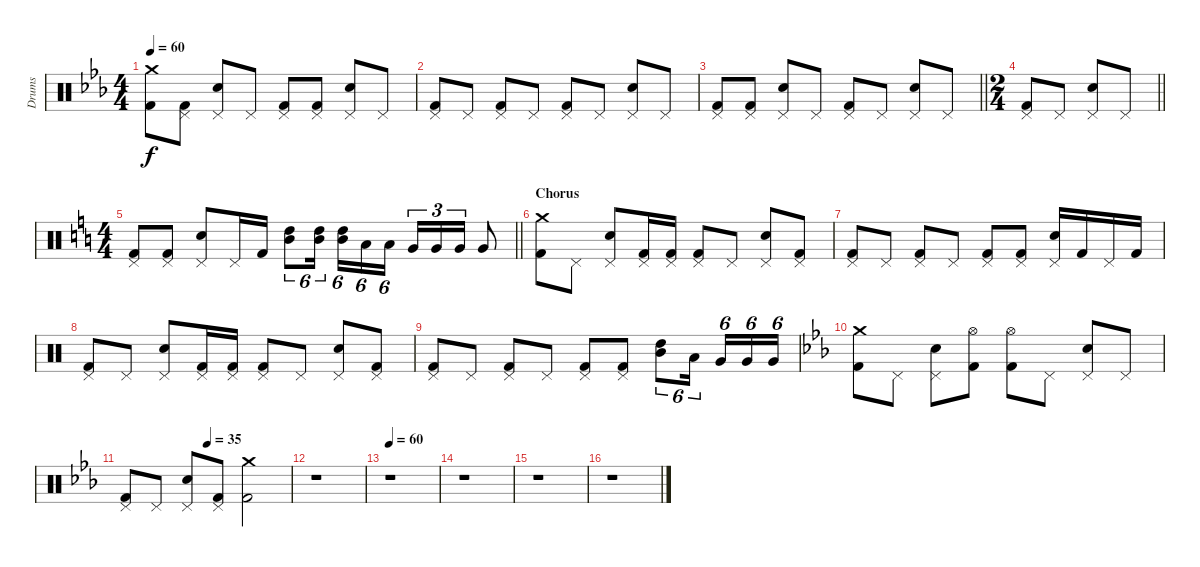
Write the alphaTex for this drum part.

\track ("Drums" "Drums") {instrument percussion}
\staff {score}
\articulation defaults
\ts (4 4)
\tempo 60
\clef neutral
\ks cminor
("Crash medium (hit)" "Kick (hit) 2").8{dy f} ("Pedal Hi-Hat (hit)" "Kick (hit) 2").8 ("Pedal Hi-Hat (hit)" "Snare (hit) 2").8 "Pedal Hi-Hat (hit)".8 ("Pedal Hi-Hat (hit)" "Kick (hit) 2").8 ("Pedal Hi-Hat (hit)" "Kick (hit) 2").8 ("Pedal Hi-Hat (hit)" "Snare (hit) 2").8 "Pedal Hi-Hat (hit)".8 |
("Pedal Hi-Hat (hit)" "Kick (hit) 2").8 "Pedal Hi-Hat (hit)".8 ("Pedal Hi-Hat (hit)" "Kick (hit) 2").8 "Pedal Hi-Hat (hit)".8 ("Pedal Hi-Hat (hit)" "Kick (hit) 2").8 "Pedal Hi-Hat (hit)".8 ("Pedal Hi-Hat (hit)" "Snare (hit) 2").8 "Pedal Hi-Hat (hit)".8 |
\barLineRight lightlight
("Pedal Hi-Hat (hit)" "Kick (hit) 2").8 ("Pedal Hi-Hat (hit)" "Kick (hit) 2").8 ("Pedal Hi-Hat (hit)" "Snare (hit) 2").8 "Pedal Hi-Hat (hit)".8 ("Pedal Hi-Hat (hit)" "Kick (hit) 2").8 "Pedal Hi-Hat (hit)".8 ("Pedal Hi-Hat (hit)" "Snare (hit) 2").8 "Pedal Hi-Hat (hit)".8 |
\ts (2 4)
\barLineRight lightlight
("Pedal Hi-Hat (hit)" "Kick (hit) 2").8 "Pedal Hi-Hat (hit)".8 ("Pedal Hi-Hat (hit)" "Snare (hit) 2").8 "Pedal Hi-Hat (hit)".8 |
\ts (4 4)
\barLineRight lightlight
\ks c
("Pedal Hi-Hat (hit)" "Kick (hit) 2").8 ("Pedal Hi-Hat (hit)" "Kick (hit) 2").8 ("Pedal Hi-Hat (hit)" "Snare (hit) 2").8 "Pedal Hi-Hat (hit)".16 "Kick (hit) 2".16 ("High Tom (hit)" "Mid Tom (hit)").8{tu (6 4)} ("High Tom (hit)" "Mid Tom (hit)").16{tu (6 4) beam splitsecondary} ("High Tom (hit)" "Mid Tom (hit)").16{tu (6 4)} "Low Tom (hit)".16{tu (6 4)} "Low Tom (hit)".16{tu (6 4)} "Very Low Tom (hit)".16{tu (3 2)} "Very Low Tom (hit)".16{tu (3 2)} "Very Low Tom (hit)".16{tu (3 2)} "Very Low Tom (hit)".8 |
\section ("" "Chorus")
("Crash medium (hit)" "Kick (hit) 2").8 "Pedal Hi-Hat (hit)".8 ("Pedal Hi-Hat (hit)" "Snare (hit) 2").8 ("Pedal Hi-Hat (hit)" "Kick (hit) 2").16 ("Pedal Hi-Hat (hit)" "Kick (hit) 2").16 ("Pedal Hi-Hat (hit)" "Kick (hit) 2").8 "Pedal Hi-Hat (hit)".8 ("Pedal Hi-Hat (hit)" "Snare (hit) 2").8 ("Pedal Hi-Hat (hit)" "Kick (hit) 2").8 |
("Pedal Hi-Hat (hit)" "Kick (hit) 2").8 "Pedal Hi-Hat (hit)".8 ("Pedal Hi-Hat (hit)" "Kick (hit) 2").8 "Pedal Hi-Hat (hit)".8 ("Pedal Hi-Hat (hit)" "Kick (hit) 2").8 ("Pedal Hi-Hat (hit)" "Kick (hit) 2").8 ("Pedal Hi-Hat (hit)" "Snare (hit) 2").16 "Kick (hit) 2".16 "Pedal Hi-Hat (hit)".16 "Kick (hit) 2".16 |
("Pedal Hi-Hat (hit)" "Kick (hit) 2").8 "Pedal Hi-Hat (hit)".8 ("Pedal Hi-Hat (hit)" "Snare (hit) 2").8 ("Pedal Hi-Hat (hit)" "Kick (hit) 2").16 ("Pedal Hi-Hat (hit)" "Kick (hit) 2").16 ("Pedal Hi-Hat (hit)" "Kick (hit) 2").8 "Pedal Hi-Hat (hit)".8 ("Pedal Hi-Hat (hit)" "Snare (hit) 2").8 ("Pedal Hi-Hat (hit)" "Kick (hit) 2").8 |
("Pedal Hi-Hat (hit)" "Kick (hit) 2").8 "Pedal Hi-Hat (hit)".8 ("Pedal Hi-Hat (hit)" "Kick (hit) 2").8 "Pedal Hi-Hat (hit)".8 ("Pedal Hi-Hat (hit)" "Kick (hit) 2").8 ("Pedal Hi-Hat (hit)" "Kick (hit) 2").8 ("High Tom (hit)" "Mid Tom (hit)").8{tu (6 4)} "Low Tom (hit)".16{tu (6 4) beam splitsecondary} "Very Low Tom (hit)".16{tu (6 4)} "Very Low Tom (hit)".16{tu (6 4)} "Very Low Tom (hit)".16{tu (6 4)} |
\ks cminor
("Crash medium (hit)" "Kick (hit) 2").8 "Pedal Hi-Hat (hit)".8 ("Pedal Hi-Hat (hit)" "Snare (hit) 2").8 ("Hi-Hat (open)" "Kick (hit) 2").8 ("Hi-Hat (open)" "Kick (hit) 2").8 "Pedal Hi-Hat (hit)".8 ("Pedal Hi-Hat (hit)" "Snare (hit) 2").8 "Pedal Hi-Hat (hit)".8 |
\tempo (35 0.5)
("Pedal Hi-Hat (hit)" "Kick (hit) 2").8 "Pedal Hi-Hat (hit)".8 ("Pedal Hi-Hat (hit)" "Snare (hit) 2").8 ("Pedal Hi-Hat (hit)" "Kick (hit) 2").8 ("Crash medium (hit)" "Kick (hit) 2").2 |
r.1 |
\tempo 60
r.1 |
r.1 |
r.1 |
r.1
